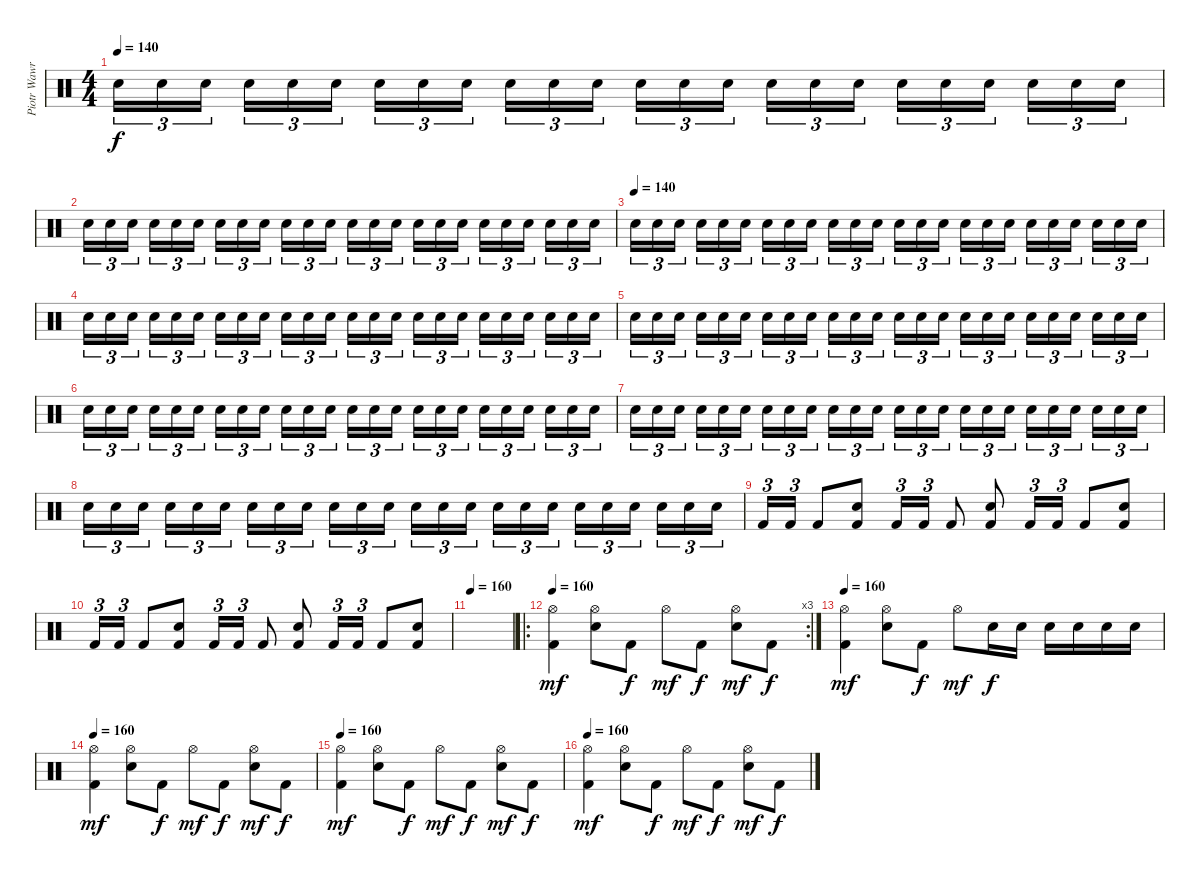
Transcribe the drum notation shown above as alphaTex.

\track ("Piotr Wawrzeniunk (drums)" "Piotr Wawr") {instrument percussion}
\staff {score}
\articulation defaults
\ts (4 4)
\tempo 140
\clef neutral
\ks c "Electric Snare (hit)".16{tu (3 2) dy f volume 11} "Electric Snare (hit)".16{tu (3 2)} "Electric Snare (hit)".16{tu (3 2)} "Electric Snare (hit)".16{tu (3 2)} "Electric Snare (hit)".16{tu (3 2)} "Electric Snare (hit)".16{tu (3 2)} "Electric Snare (hit)".16{tu (3 2)} "Electric Snare (hit)".16{tu (3 2)} "Electric Snare (hit)".16{tu (3 2)} "Electric Snare (hit)".16{tu (3 2)} "Electric Snare (hit)".16{tu (3 2)} "Electric Snare (hit)".16{tu (3 2)} "Electric Snare (hit)".16{tu (3 2)} "Electric Snare (hit)".16{tu (3 2)} "Electric Snare (hit)".16{tu (3 2)} "Electric Snare (hit)".16{tu (3 2)} "Electric Snare (hit)".16{tu (3 2)} "Electric Snare (hit)".16{tu (3 2)} "Electric Snare (hit)".16{tu (3 2)} "Electric Snare (hit)".16{tu (3 2)} "Electric Snare (hit)".16{tu (3 2)} "Electric Snare (hit)".16{tu (3 2)} "Electric Snare (hit)".16{tu (3 2)} "Electric Snare (hit)".16{tu (3 2)}
|
"Electric Snare (hit)".16{tu (3 2)} "Electric Snare (hit)".16{tu (3 2)} "Electric Snare (hit)".16{tu (3 2)} "Electric Snare (hit)".16{tu (3 2)} "Electric Snare (hit)".16{tu (3 2)} "Electric Snare (hit)".16{tu (3 2)} "Electric Snare (hit)".16{tu (3 2)} "Electric Snare (hit)".16{tu (3 2)} "Electric Snare (hit)".16{tu (3 2)} "Electric Snare (hit)".16{tu (3 2)} "Electric Snare (hit)".16{tu (3 2)} "Electric Snare (hit)".16{tu (3 2)} "Electric Snare (hit)".16{tu (3 2)} "Electric Snare (hit)".16{tu (3 2)} "Electric Snare (hit)".16{tu (3 2)} "Electric Snare (hit)".16{tu (3 2)} "Electric Snare (hit)".16{tu (3 2)} "Electric Snare (hit)".16{tu (3 2)} "Electric Snare (hit)".16{tu (3 2)} "Electric Snare (hit)".16{tu (3 2)} "Electric Snare (hit)".16{tu (3 2)} "Electric Snare (hit)".16{tu (3 2)} "Electric Snare (hit)".16{tu (3 2)} "Electric Snare (hit)".16{tu (3 2)} |
\tempo (140)
"Electric Snare (hit)".16{tu (3 2) volume 11} "Electric Snare (hit)".16{tu (3 2)} "Electric Snare (hit)".16{tu (3 2)} "Electric Snare (hit)".16{tu (3 2)} "Electric Snare (hit)".16{tu (3 2)} "Electric Snare (hit)".16{tu (3 2)} "Electric Snare (hit)".16{tu (3 2)} "Electric Snare (hit)".16{tu (3 2)} "Electric Snare (hit)".16{tu (3 2)} "Electric Snare (hit)".16{tu (3 2)} "Electric Snare (hit)".16{tu (3 2)} "Electric Snare (hit)".16{tu (3 2)} "Electric Snare (hit)".16{tu (3 2)} "Electric Snare (hit)".16{tu (3 2)} "Electric Snare (hit)".16{tu (3 2)} "Electric Snare (hit)".16{tu (3 2)} "Electric Snare (hit)".16{tu (3 2)} "Electric Snare (hit)".16{tu (3 2)} "Electric Snare (hit)".16{tu (3 2)} "Electric Snare (hit)".16{tu (3 2)} "Electric Snare (hit)".16{tu (3 2)} "Electric Snare (hit)".16{tu (3 2)} "Electric Snare (hit)".16{tu (3 2)} "Electric Snare (hit)".16{tu (3 2)} |
"Electric Snare (hit)".16{tu (3 2)} "Electric Snare (hit)".16{tu (3 2)} "Electric Snare (hit)".16{tu (3 2)} "Electric Snare (hit)".16{tu (3 2)} "Electric Snare (hit)".16{tu (3 2)} "Electric Snare (hit)".16{tu (3 2)} "Electric Snare (hit)".16{tu (3 2)} "Electric Snare (hit)".16{tu (3 2)} "Electric Snare (hit)".16{tu (3 2)} "Electric Snare (hit)".16{tu (3 2)} "Electric Snare (hit)".16{tu (3 2)} "Electric Snare (hit)".16{tu (3 2)} "Electric Snare (hit)".16{tu (3 2)} "Electric Snare (hit)".16{tu (3 2)} "Electric Snare (hit)".16{tu (3 2)} "Electric Snare (hit)".16{tu (3 2)} "Electric Snare (hit)".16{tu (3 2)} "Electric Snare (hit)".16{tu (3 2)} "Electric Snare (hit)".16{tu (3 2)} "Electric Snare (hit)".16{tu (3 2)} "Electric Snare (hit)".16{tu (3 2)} "Electric Snare (hit)".16{tu (3 2)} "Electric Snare (hit)".16{tu (3 2)} "Electric Snare (hit)".16{tu (3 2)} |
"Electric Snare (hit)".16{tu (3 2)} "Electric Snare (hit)".16{tu (3 2)} "Electric Snare (hit)".16{tu (3 2)} "Electric Snare (hit)".16{tu (3 2)} "Electric Snare (hit)".16{tu (3 2)} "Electric Snare (hit)".16{tu (3 2)} "Electric Snare (hit)".16{tu (3 2)} "Electric Snare (hit)".16{tu (3 2)} "Electric Snare (hit)".16{tu (3 2)} "Electric Snare (hit)".16{tu (3 2)} "Electric Snare (hit)".16{tu (3 2)} "Electric Snare (hit)".16{tu (3 2)} "Electric Snare (hit)".16{tu (3 2)} "Electric Snare (hit)".16{tu (3 2)} "Electric Snare (hit)".16{tu (3 2)} "Electric Snare (hit)".16{tu (3 2)} "Electric Snare (hit)".16{tu (3 2)} "Electric Snare (hit)".16{tu (3 2)} "Electric Snare (hit)".16{tu (3 2)} "Electric Snare (hit)".16{tu (3 2)} "Electric Snare (hit)".16{tu (3 2)} "Electric Snare (hit)".16{tu (3 2)} "Electric Snare (hit)".16{tu (3 2)} "Electric Snare (hit)".16{tu (3 2)} |
"Electric Snare (hit)".16{tu (3 2)} "Electric Snare (hit)".16{tu (3 2)} "Electric Snare (hit)".16{tu (3 2)} "Electric Snare (hit)".16{tu (3 2)} "Electric Snare (hit)".16{tu (3 2)} "Electric Snare (hit)".16{tu (3 2)} "Electric Snare (hit)".16{tu (3 2)} "Electric Snare (hit)".16{tu (3 2)} "Electric Snare (hit)".16{tu (3 2)} "Electric Snare (hit)".16{tu (3 2)} "Electric Snare (hit)".16{tu (3 2)} "Electric Snare (hit)".16{tu (3 2)} "Electric Snare (hit)".16{tu (3 2)} "Electric Snare (hit)".16{tu (3 2)} "Electric Snare (hit)".16{tu (3 2)} "Electric Snare (hit)".16{tu (3 2)} "Electric Snare (hit)".16{tu (3 2)} "Electric Snare (hit)".16{tu (3 2)} "Electric Snare (hit)".16{tu (3 2)} "Electric Snare (hit)".16{tu (3 2)} "Electric Snare (hit)".16{tu (3 2)} "Electric Snare (hit)".16{tu (3 2)} "Electric Snare (hit)".16{tu (3 2)} "Electric Snare (hit)".16{tu (3 2)} |
"Electric Snare (hit)".16{tu (3 2)} "Electric Snare (hit)".16{tu (3 2)} "Electric Snare (hit)".16{tu (3 2)} "Electric Snare (hit)".16{tu (3 2)} "Electric Snare (hit)".16{tu (3 2)} "Electric Snare (hit)".16{tu (3 2)} "Electric Snare (hit)".16{tu (3 2)} "Electric Snare (hit)".16{tu (3 2)} "Electric Snare (hit)".16{tu (3 2)} "Electric Snare (hit)".16{tu (3 2)} "Electric Snare (hit)".16{tu (3 2)} "Electric Snare (hit)".16{tu (3 2)} "Electric Snare (hit)".16{tu (3 2)} "Electric Snare (hit)".16{tu (3 2)} "Electric Snare (hit)".16{tu (3 2)} "Electric Snare (hit)".16{tu (3 2)} "Electric Snare (hit)".16{tu (3 2)} "Electric Snare (hit)".16{tu (3 2)} "Electric Snare (hit)".16{tu (3 2)} "Electric Snare (hit)".16{tu (3 2)} "Electric Snare (hit)".16{tu (3 2)} "Electric Snare (hit)".16{tu (3 2)} "Electric Snare (hit)".16{tu (3 2)} "Electric Snare (hit)".16{tu (3 2)} |
"Electric Snare (hit)".16{tu (3 2)} "Electric Snare (hit)".16{tu (3 2)} "Electric Snare (hit)".16{tu (3 2)} "Electric Snare (hit)".16{tu (3 2)} "Electric Snare (hit)".16{tu (3 2)} "Electric Snare (hit)".16{tu (3 2)} "Electric Snare (hit)".16{tu (3 2)} "Electric Snare (hit)".16{tu (3 2)} "Electric Snare (hit)".16{tu (3 2)} "Electric Snare (hit)".16{tu (3 2)} "Electric Snare (hit)".16{tu (3 2)} "Electric Snare (hit)".16{tu (3 2)} "Electric Snare (hit)".16{tu (3 2)} "Electric Snare (hit)".16{tu (3 2)} "Electric Snare (hit)".16{tu (3 2)} "Electric Snare (hit)".16{tu (3 2)} "Electric Snare (hit)".16{tu (3 2)} "Electric Snare (hit)".16{tu (3 2)} "Electric Snare (hit)".16{tu (3 2)} "Electric Snare (hit)".16{tu (3 2)} "Electric Snare (hit)".16{tu (3 2)} "Electric Snare (hit)".16{tu (3 2)} "Electric Snare (hit)".16{tu (3 2)} "Electric Snare (hit)".16{tu (3 2)} |
"Kick (hit) 2".16{tu (3 2)} "Kick (hit) 2".16{tu (3 2)} "Kick (hit) 2".8 ("Electric Snare (hit)" "Kick (hit) 2").8 "Kick (hit) 2".16{tu (3 2)} "Kick (hit) 2".16{tu (3 2)} "Kick (hit) 2".8 ("Electric Snare (hit)" "Kick (hit) 2").8 "Kick (hit) 2".16{tu (3 2)} "Kick (hit) 2".16{tu (3 2)} "Kick (hit) 2".8 ("Electric Snare (hit)" "Kick (hit) 2").8 |
"Kick (hit) 2".16{tu (3 2)} "Kick (hit) 2".16{tu (3 2)} "Kick (hit) 2".8 ("Electric Snare (hit)" "Kick (hit) 2").8 "Kick (hit) 2".16{tu (3 2)} "Kick (hit) 2".16{tu (3 2)} "Kick (hit) 2".8 ("Electric Snare (hit)" "Kick (hit) 2").8 "Kick (hit) 2".16{tu (3 2)} "Kick (hit) 2".16{tu (3 2)} "Kick (hit) 2".8 ("Electric Snare (hit)" "Kick (hit) 2").8 |
\tempo 160
|
\ro
\rc 3
\tempo 160
("Kick (hit) 2" "Hi-Hat (open)").4{dy mf} ("Electric Snare (hit)" "Hi-Hat (open)").8 "Kick (hit) 2".8{dy f} "Hi-Hat (open)".8{dy mf} "Kick (hit) 2".8{dy f} ("Electric Snare (hit)" "Hi-Hat (open)").8{dy mf} "Kick (hit) 2".8{dy f} |
\tempo 160
("Kick (hit) 2" "Hi-Hat (open)").4{dy mf} ("Electric Snare (hit)" "Hi-Hat (open)").8 "Kick (hit) 2".8{dy f} "Hi-Hat (open)".8{dy mf} "Electric Snare (hit)".16{dy f} "Electric Snare (hit)".16 "Electric Snare (hit)".16 "Electric Snare (hit)".16 "Electric Snare (hit)".16 "Electric Snare (hit)".16 |
\tempo 160
("Kick (hit) 2" "Hi-Hat (open)").4{dy mf} ("Electric Snare (hit)" "Hi-Hat (open)").8 "Kick (hit) 2".8{dy f} "Hi-Hat (open)".8{dy mf} "Kick (hit) 2".8{dy f} ("Electric Snare (hit)" "Hi-Hat (open)").8{dy mf} "Kick (hit) 2".8{dy f} |
\tempo 160
("Kick (hit) 2" "Hi-Hat (open)").4{dy mf} ("Electric Snare (hit)" "Hi-Hat (open)").8 "Kick (hit) 2".8{dy f} "Hi-Hat (open)".8{dy mf} "Kick (hit) 2".8{dy f} ("Electric Snare (hit)" "Hi-Hat (open)").8{dy mf} "Kick (hit) 2".8{dy f} |
\tempo 160
("Kick (hit) 2" "Hi-Hat (open)").4{dy mf} ("Electric Snare (hit)" "Hi-Hat (open)").8 "Kick (hit) 2".8{dy f} "Hi-Hat (open)".8{dy mf} "Kick (hit) 2".8{dy f} ("Electric Snare (hit)" "Hi-Hat (open)").8{dy mf} "Kick (hit) 2".8{dy f}
